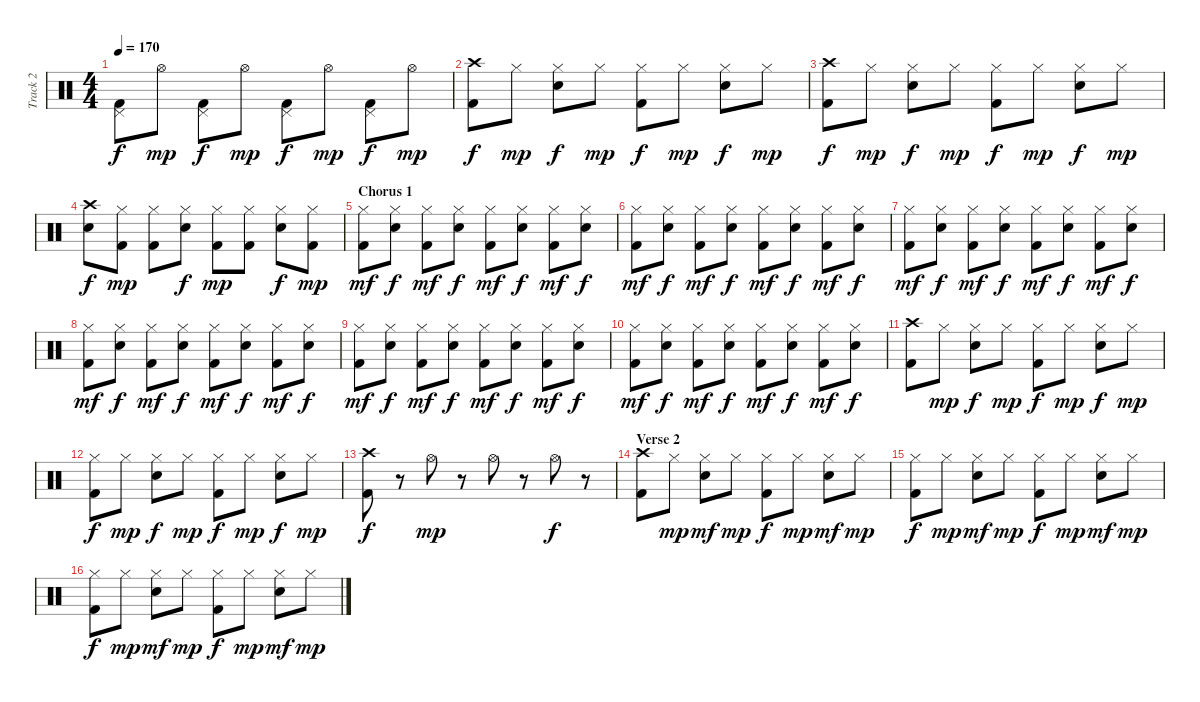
\track ("Track 2" "Track 2") {instrument percussion}
\staff {score}
\articulation defaults
\ts (4 4)
\tempo 170
\clef neutral
\ks c
("Pedal Hi-Hat (hit)" "Kick (hit) 2").8{dy f} "Hi-Hat (open)".8{dy mp} ("Pedal Hi-Hat (hit)" "Kick (hit) 2").8{dy f} "Hi-Hat (open)".8{dy mp} ("Pedal Hi-Hat (hit)" "Kick (hit) 2").8{dy f} "Hi-Hat (open)".8{dy mp} ("Pedal Hi-Hat (hit)" "Kick (hit) 2").8{dy f} "Hi-Hat (open)".8{dy mp} |
("Crash high (hit)" "Kick (hit) 2").8{dy f} "Hi-Hat (closed)".8{dy mp} ("Hi-Hat (closed)" "Electric Snare (hit)").8{dy f} "Hi-Hat (closed)".8{dy mp} ("Hi-Hat (closed)" "Kick (hit) 2").8{dy f} "Hi-Hat (closed)".8{dy mp} ("Hi-Hat (closed)" "Electric Snare (hit)").8{dy f} "Hi-Hat (closed)".8{dy mp} |
("Crash high (hit)" "Kick (hit) 2").8{dy f} "Hi-Hat (closed)".8{dy mp} ("Hi-Hat (closed)" "Electric Snare (hit)").8{dy f} "Hi-Hat (closed)".8{dy mp} ("Hi-Hat (closed)" "Kick (hit) 2").8{dy f} "Hi-Hat (closed)".8{dy mp} ("Hi-Hat (closed)" "Electric Snare (hit)").8{dy f} "Hi-Hat (closed)".8{dy mp} |
("Crash high (hit)" "Electric Snare (hit)").8{dy f} ("Hi-Hat (closed)" "Kick (hit) 2").8{dy mp} ("Hi-Hat (closed)" "Kick (hit) 2").8 ("Hi-Hat (closed)" "Electric Snare (hit)").8{dy f} ("Hi-Hat (closed)" "Kick (hit) 2").8{dy mp} ("Hi-Hat (closed)" "Kick (hit) 2").8 ("Hi-Hat (closed)" "Electric Snare (hit)").8{dy f} ("Hi-Hat (closed)" "Kick (hit) 2").8{dy mp} |
\section ("" "Chorus 1")
("Hi-Hat (closed)" "Kick (hit) 2").8{dy mf} ("Hi-Hat (closed)" "Electric Snare (hit)").8{dy f} ("Hi-Hat (closed)" "Kick (hit) 2").8{dy mf} ("Hi-Hat (closed)" "Electric Snare (hit)").8{dy f} ("Hi-Hat (closed)" "Kick (hit) 2").8{dy mf} ("Hi-Hat (closed)" "Electric Snare (hit)").8{dy f} ("Hi-Hat (closed)" "Kick (hit) 2").8{dy mf} ("Hi-Hat (closed)" "Electric Snare (hit)").8{dy f} |
("Hi-Hat (closed)" "Kick (hit) 2").8{dy mf} ("Hi-Hat (closed)" "Electric Snare (hit)").8{dy f} ("Hi-Hat (closed)" "Kick (hit) 2").8{dy mf} ("Hi-Hat (closed)" "Electric Snare (hit)").8{dy f} ("Hi-Hat (closed)" "Kick (hit) 2").8{dy mf} ("Hi-Hat (closed)" "Electric Snare (hit)").8{dy f} ("Hi-Hat (closed)" "Kick (hit) 2").8{dy mf} ("Hi-Hat (closed)" "Electric Snare (hit)").8{dy f} |
("Hi-Hat (closed)" "Kick (hit) 2").8{dy mf} ("Hi-Hat (closed)" "Electric Snare (hit)").8{dy f} ("Hi-Hat (closed)" "Kick (hit) 2").8{dy mf} ("Hi-Hat (closed)" "Electric Snare (hit)").8{dy f} ("Hi-Hat (closed)" "Kick (hit) 2").8{dy mf} ("Hi-Hat (closed)" "Electric Snare (hit)").8{dy f} ("Hi-Hat (closed)" "Kick (hit) 2").8{dy mf} ("Hi-Hat (closed)" "Electric Snare (hit)").8{dy f} |
("Hi-Hat (closed)" "Kick (hit) 2").8{dy mf} ("Hi-Hat (closed)" "Electric Snare (hit)").8{dy f} ("Hi-Hat (closed)" "Kick (hit) 2").8{dy mf} ("Hi-Hat (closed)" "Electric Snare (hit)").8{dy f} ("Hi-Hat (closed)" "Kick (hit) 2").8{dy mf} ("Hi-Hat (closed)" "Electric Snare (hit)").8{dy f} ("Hi-Hat (closed)" "Kick (hit) 2").8{dy mf} ("Hi-Hat (closed)" "Electric Snare (hit)").8{dy f} |
("Hi-Hat (closed)" "Kick (hit) 2").8{dy mf} ("Hi-Hat (closed)" "Electric Snare (hit)").8{dy f} ("Hi-Hat (closed)" "Kick (hit) 2").8{dy mf} ("Hi-Hat (closed)" "Electric Snare (hit)").8{dy f} ("Hi-Hat (closed)" "Kick (hit) 2").8{dy mf} ("Hi-Hat (closed)" "Electric Snare (hit)").8{dy f} ("Hi-Hat (closed)" "Kick (hit) 2").8{dy mf} ("Hi-Hat (closed)" "Electric Snare (hit)").8{dy f} |
("Hi-Hat (closed)" "Kick (hit) 2").8{dy mf} ("Hi-Hat (closed)" "Electric Snare (hit)").8{dy f} ("Hi-Hat (closed)" "Kick (hit) 2").8{dy mf} ("Hi-Hat (closed)" "Electric Snare (hit)").8{dy f} ("Hi-Hat (closed)" "Kick (hit) 2").8{dy mf} ("Hi-Hat (closed)" "Electric Snare (hit)").8{dy f} ("Hi-Hat (closed)" "Kick (hit) 2").8{dy mf} ("Hi-Hat (closed)" "Electric Snare (hit)").8{dy f} |
("Crash high (hit)" "Kick (hit) 2").8 "Hi-Hat (closed)".8{dy mp} ("Hi-Hat (closed)" "Electric Snare (hit)").8{dy f} "Hi-Hat (closed)".8{dy mp} ("Hi-Hat (closed)" "Kick (hit) 2").8{dy f} "Hi-Hat (closed)".8{dy mp} ("Hi-Hat (closed)" "Electric Snare (hit)").8{dy f} "Hi-Hat (closed)".8{dy mp} |
("Hi-Hat (closed)" "Kick (hit) 2").8{dy f} "Hi-Hat (closed)".8{dy mp} ("Hi-Hat (closed)" "Electric Snare (hit)").8{dy f} "Hi-Hat (closed)".8{dy mp} ("Hi-Hat (closed)" "Kick (hit) 2").8{dy f} "Hi-Hat (closed)".8{dy mp} ("Hi-Hat (closed)" "Electric Snare (hit)").8{dy f} "Hi-Hat (closed)".8{dy mp} |
("Crash high (hit)" "Kick (hit) 2").8{dy f} r.8 "Hi-Hat (open)".8{dy mp} r.8 "Hi-Hat (open)".8 r.8 "Hi-Hat (open)".8{dy f} r.8 |
\section ("" "Verse 2")
("Crash high (hit)" "Kick (hit) 2").8 "Hi-Hat (closed)".8{dy mp} ("Hi-Hat (closed)" "Electric Snare (hit)").8{dy mf} "Hi-Hat (closed)".8{dy mp} ("Hi-Hat (closed)" "Kick (hit) 2").8{dy f} "Hi-Hat (closed)".8{dy mp} ("Hi-Hat (closed)" "Electric Snare (hit)").8{dy mf} "Hi-Hat (closed)".8{dy mp} |
("Hi-Hat (closed)" "Kick (hit) 2").8{dy f} "Hi-Hat (closed)".8{dy mp} ("Hi-Hat (closed)" "Electric Snare (hit)").8{dy mf} "Hi-Hat (closed)".8{dy mp} ("Hi-Hat (closed)" "Kick (hit) 2").8{dy f} "Hi-Hat (closed)".8{dy mp} ("Hi-Hat (closed)" "Electric Snare (hit)").8{dy mf} "Hi-Hat (closed)".8{dy mp} |
("Hi-Hat (closed)" "Kick (hit) 2").8{dy f} "Hi-Hat (closed)".8{dy mp} ("Hi-Hat (closed)" "Electric Snare (hit)").8{dy mf} "Hi-Hat (closed)".8{dy mp} ("Hi-Hat (closed)" "Kick (hit) 2").8{dy f} "Hi-Hat (closed)".8{dy mp} ("Hi-Hat (closed)" "Electric Snare (hit)").8{dy mf} "Hi-Hat (closed)".8{dy mp}
